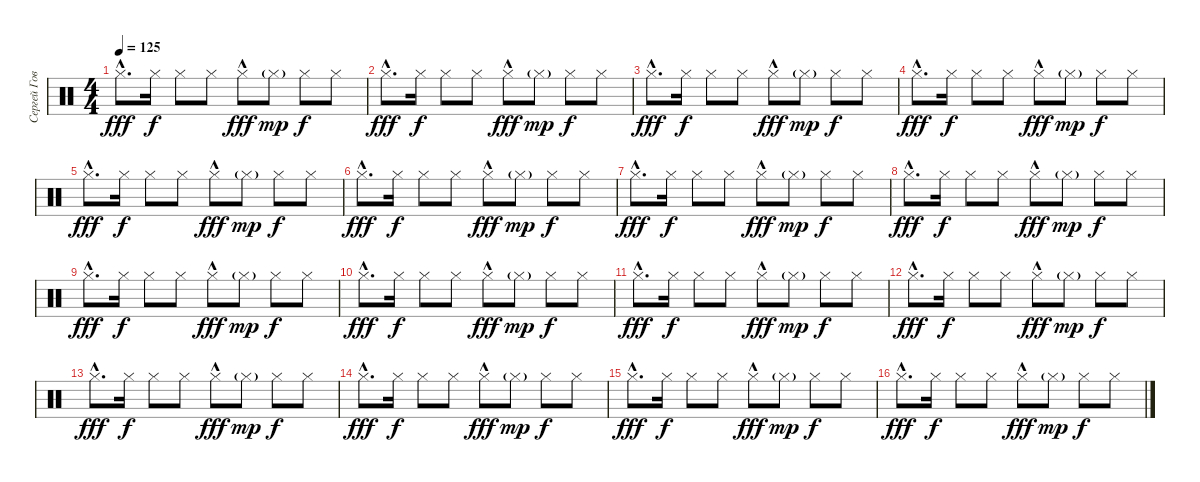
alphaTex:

\track ("Сергей Говорун" "Сергей Гов") {instrument percussion}
\staff {score}
\articulation defaults
\ts (4 4)
\tempo 125
\clef neutral
\ks c "Hi-Hat (closed)"{hac}.8{d dy fff} "Hi-Hat (closed)".16{dy f} "Hi-Hat (closed)".8 "Hi-Hat (closed)".8 "Hi-Hat (closed)"{hac}.8{dy fff} "Hi-Hat (closed)"{g}.8{dy mp} "Hi-Hat (closed)".8{dy f} "Hi-Hat (closed)".8
|
"Hi-Hat (closed)"{hac}.8{d dy fff} "Hi-Hat (closed)".16{dy f} "Hi-Hat (closed)".8 "Hi-Hat (closed)".8 "Hi-Hat (closed)"{hac}.8{dy fff} "Hi-Hat (closed)"{g}.8{dy mp} "Hi-Hat (closed)".8{dy f} "Hi-Hat (closed)".8 |
"Hi-Hat (closed)"{hac}.8{d dy fff} "Hi-Hat (closed)".16{dy f} "Hi-Hat (closed)".8 "Hi-Hat (closed)".8 "Hi-Hat (closed)"{hac}.8{dy fff} "Hi-Hat (closed)"{g}.8{dy mp} "Hi-Hat (closed)".8{dy f} "Hi-Hat (closed)".8 |
"Hi-Hat (closed)"{hac}.8{d dy fff} "Hi-Hat (closed)".16{dy f} "Hi-Hat (closed)".8 "Hi-Hat (closed)".8 "Hi-Hat (closed)"{hac}.8{dy fff} "Hi-Hat (closed)"{g}.8{dy mp} "Hi-Hat (closed)".8{dy f} "Hi-Hat (closed)".8 |
"Hi-Hat (closed)"{hac}.8{d dy fff} "Hi-Hat (closed)".16{dy f} "Hi-Hat (closed)".8 "Hi-Hat (closed)".8 "Hi-Hat (closed)"{hac}.8{dy fff} "Hi-Hat (closed)"{g}.8{dy mp} "Hi-Hat (closed)".8{dy f} "Hi-Hat (closed)".8 |
"Hi-Hat (closed)"{hac}.8{d dy fff} "Hi-Hat (closed)".16{dy f} "Hi-Hat (closed)".8 "Hi-Hat (closed)".8 "Hi-Hat (closed)"{hac}.8{dy fff} "Hi-Hat (closed)"{g}.8{dy mp} "Hi-Hat (closed)".8{dy f} "Hi-Hat (closed)".8 |
"Hi-Hat (closed)"{hac}.8{d dy fff} "Hi-Hat (closed)".16{dy f} "Hi-Hat (closed)".8 "Hi-Hat (closed)".8 "Hi-Hat (closed)"{hac}.8{dy fff} "Hi-Hat (closed)"{g}.8{dy mp} "Hi-Hat (closed)".8{dy f} "Hi-Hat (closed)".8 |
"Hi-Hat (closed)"{hac}.8{d dy fff} "Hi-Hat (closed)".16{dy f} "Hi-Hat (closed)".8 "Hi-Hat (closed)".8 "Hi-Hat (closed)"{hac}.8{dy fff} "Hi-Hat (closed)"{g}.8{dy mp} "Hi-Hat (closed)".8{dy f} "Hi-Hat (closed)".8 |
"Hi-Hat (closed)"{hac}.8{d dy fff} "Hi-Hat (closed)".16{dy f} "Hi-Hat (closed)".8 "Hi-Hat (closed)".8 "Hi-Hat (closed)"{hac}.8{dy fff} "Hi-Hat (closed)"{g}.8{dy mp} "Hi-Hat (closed)".8{dy f} "Hi-Hat (closed)".8 |
"Hi-Hat (closed)"{hac}.8{d dy fff} "Hi-Hat (closed)".16{dy f} "Hi-Hat (closed)".8 "Hi-Hat (closed)".8 "Hi-Hat (closed)"{hac}.8{dy fff} "Hi-Hat (closed)"{g}.8{dy mp} "Hi-Hat (closed)".8{dy f} "Hi-Hat (closed)".8 |
"Hi-Hat (closed)"{hac}.8{d dy fff} "Hi-Hat (closed)".16{dy f} "Hi-Hat (closed)".8 "Hi-Hat (closed)".8 "Hi-Hat (closed)"{hac}.8{dy fff} "Hi-Hat (closed)"{g}.8{dy mp} "Hi-Hat (closed)".8{dy f} "Hi-Hat (closed)".8 |
"Hi-Hat (closed)"{hac}.8{d dy fff} "Hi-Hat (closed)".16{dy f} "Hi-Hat (closed)".8 "Hi-Hat (closed)".8 "Hi-Hat (closed)"{hac}.8{dy fff} "Hi-Hat (closed)"{g}.8{dy mp} "Hi-Hat (closed)".8{dy f} "Hi-Hat (closed)".8 |
"Hi-Hat (closed)"{hac}.8{d dy fff} "Hi-Hat (closed)".16{dy f} "Hi-Hat (closed)".8 "Hi-Hat (closed)".8 "Hi-Hat (closed)"{hac}.8{dy fff} "Hi-Hat (closed)"{g}.8{dy mp} "Hi-Hat (closed)".8{dy f} "Hi-Hat (closed)".8 |
"Hi-Hat (closed)"{hac}.8{d dy fff} "Hi-Hat (closed)".16{dy f} "Hi-Hat (closed)".8 "Hi-Hat (closed)".8 "Hi-Hat (closed)"{hac}.8{dy fff} "Hi-Hat (closed)"{g}.8{dy mp} "Hi-Hat (closed)".8{dy f} "Hi-Hat (closed)".8 |
"Hi-Hat (closed)"{hac}.8{d dy fff} "Hi-Hat (closed)".16{dy f} "Hi-Hat (closed)".8 "Hi-Hat (closed)".8 "Hi-Hat (closed)"{hac}.8{dy fff} "Hi-Hat (closed)"{g}.8{dy mp} "Hi-Hat (closed)".8{dy f} "Hi-Hat (closed)".8 |
"Hi-Hat (closed)"{hac}.8{d dy fff} "Hi-Hat (closed)".16{dy f} "Hi-Hat (closed)".8 "Hi-Hat (closed)".8 "Hi-Hat (closed)"{hac}.8{dy fff} "Hi-Hat (closed)"{g}.8{dy mp} "Hi-Hat (closed)".8{dy f} "Hi-Hat (closed)".8
